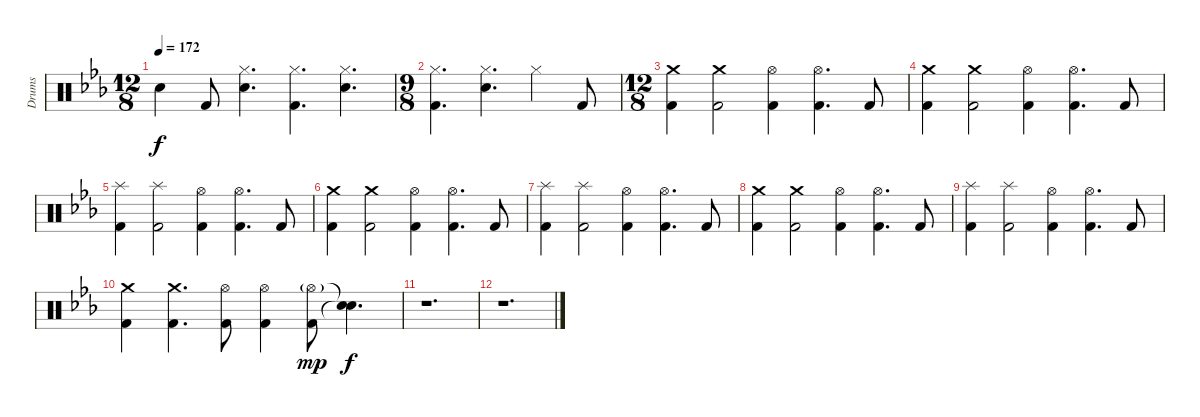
\track ("Drums" "Drums") {instrument percussion}
\staff {score}
\articulation defaults
\ts (12 8)
\tempo 172
\clef neutral
\ks cminor "Snare (hit)"{t}.4{dy f} "Kick (hit) 2".8
("Hi-Hat (closed)" "Electric Snare (hit)").4{d} ("Hi-Hat (closed)" "Kick (hit) 2").4{d} ("Hi-Hat (closed)" "Electric Snare (hit)").4{d} |
\ts (9 8)
("Hi-Hat (closed)" "Kick (hit) 2").4{d} ("Hi-Hat (closed)" "Electric Snare (hit)").4{d} "Hi-Hat (closed)".4 "Kick (hit) 2".8 |
\ts (12 8)
("Crash medium (hit)" "Kick (hit) 2").4 ("Crash medium (hit)" "Kick (hit) 2").2 ("Hi-Hat (open)" "Kick (hit) 2").4 ("Hi-Hat (open)" "Kick (hit) 2").4{d} "Kick (hit) 2".8 |
("Crash medium (hit)" "Kick (hit) 2").4 ("Crash medium (hit)" "Kick (hit) 2").2 ("Hi-Hat (open)" "Kick (hit) 2").4 ("Hi-Hat (open)" "Kick (hit) 2").4{d} "Kick (hit) 2".8 |
("Splash (hit)" "Kick (hit) 2").4 ("Splash (hit)" "Kick (hit) 2").2 ("Hi-Hat (open)" "Kick (hit) 2").4 ("Hi-Hat (open)" "Kick (hit) 2").4{d} "Kick (hit) 2".8 |
("Crash medium (hit)" "Kick (hit) 2").4 ("Crash medium (hit)" "Kick (hit) 2").2 ("Hi-Hat (open)" "Kick (hit) 2").4 ("Hi-Hat (open)" "Kick (hit) 2").4{d} "Kick (hit) 2".8 |
("Splash (hit)" "Kick (hit) 2").4 ("Splash (hit)" "Kick (hit) 2").2 ("Hi-Hat (open)" "Kick (hit) 2").4 ("Hi-Hat (open)" "Kick (hit) 2").4{d} "Kick (hit) 2".8 |
("Crash medium (hit)" "Kick (hit) 2").4 ("Crash medium (hit)" "Kick (hit) 2").2 ("Hi-Hat (open)" "Kick (hit) 2").4 ("Hi-Hat (open)" "Kick (hit) 2").4{d} "Kick (hit) 2".8 |
("Splash (hit)" "Kick (hit) 2").4 ("Splash (hit)" "Kick (hit) 2").2 ("Hi-Hat (open)" "Kick (hit) 2").4 ("Hi-Hat (open)" "Kick (hit) 2").4{d} "Kick (hit) 2".8 |
("Crash medium (hit)" "Kick (hit) 2").4 ("Crash medium (hit)" "Kick (hit) 2").4{d} ("Hi-Hat (open)" "Kick (hit) 2").8 ("Hi-Hat (open)" "Kick (hit) 2").4 ("Hi-Hat (open)"{g} "Kick (hit) 2").8{dy mp} ("Snare (hit)"{t} "Snare (hit)"{t}).4{d dy f} |
r.1{d} |
r.1{d}
